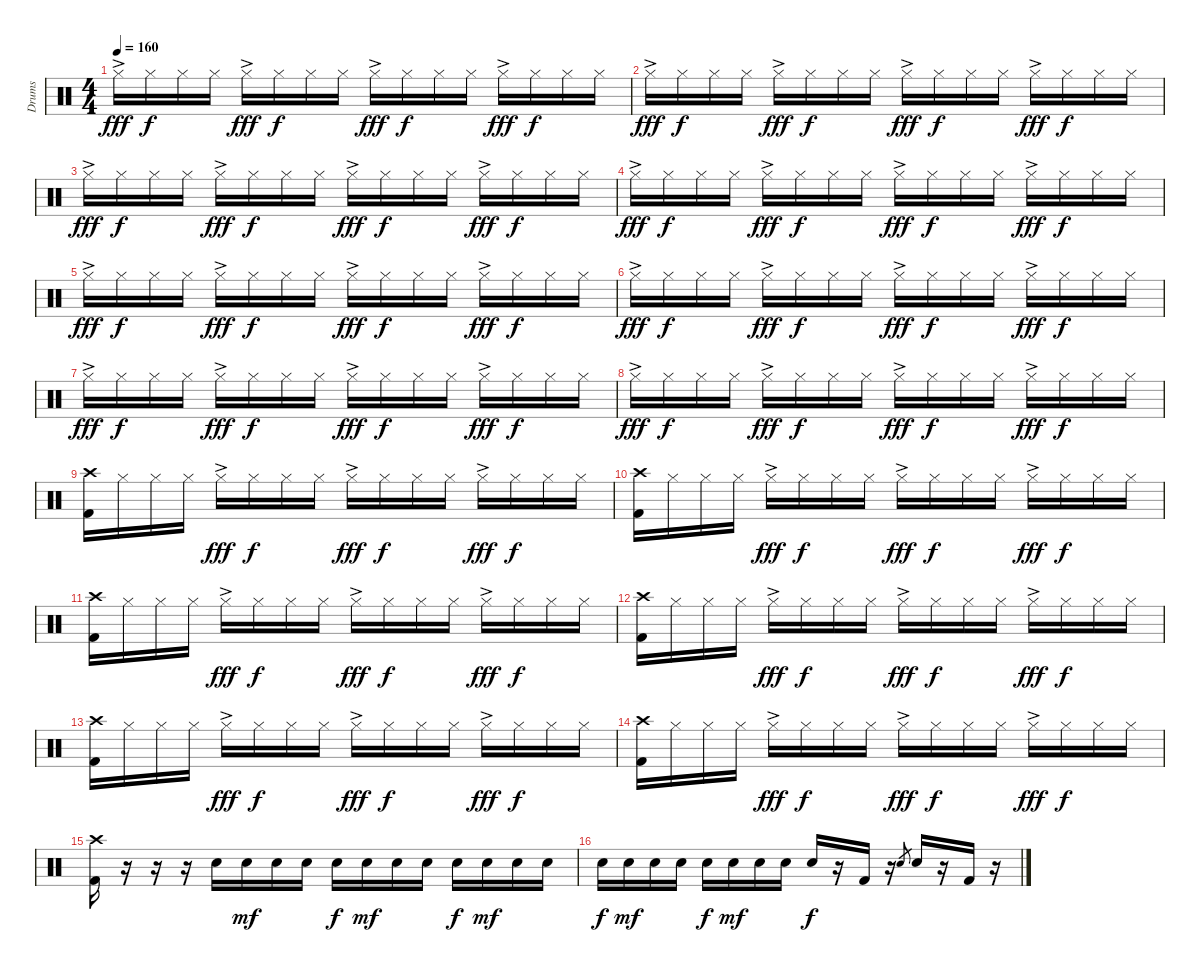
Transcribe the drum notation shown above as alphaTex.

\track ("Drums" "Drums") {instrument percussion}
\staff {score}
\articulation defaults
\ts (4 4)
\tempo 160
\clef neutral
\ks c "Hi-Hat (closed)"{ac}.16{dy fff} "Hi-Hat (closed)".16{dy f} "Hi-Hat (closed)".16 "Hi-Hat (closed)".16 "Hi-Hat (closed)"{ac}.16{dy fff} "Hi-Hat (closed)".16{dy f} "Hi-Hat (closed)".16 "Hi-Hat (closed)".16 "Hi-Hat (closed)"{ac}.16{dy fff} "Hi-Hat (closed)".16{dy f} "Hi-Hat (closed)".16 "Hi-Hat (closed)".16 "Hi-Hat (closed)"{ac}.16{dy fff} "Hi-Hat (closed)".16{dy f} "Hi-Hat (closed)".16 "Hi-Hat (closed)".16
|
"Hi-Hat (closed)"{ac}.16{dy fff} "Hi-Hat (closed)".16{dy f} "Hi-Hat (closed)".16 "Hi-Hat (closed)".16 "Hi-Hat (closed)"{ac}.16{dy fff} "Hi-Hat (closed)".16{dy f} "Hi-Hat (closed)".16 "Hi-Hat (closed)".16 "Hi-Hat (closed)"{ac}.16{dy fff} "Hi-Hat (closed)".16{dy f} "Hi-Hat (closed)".16 "Hi-Hat (closed)".16 "Hi-Hat (closed)"{ac}.16{dy fff} "Hi-Hat (closed)".16{dy f} "Hi-Hat (closed)".16 "Hi-Hat (closed)".16 |
"Hi-Hat (closed)"{ac}.16{dy fff} "Hi-Hat (closed)".16{dy f} "Hi-Hat (closed)".16 "Hi-Hat (closed)".16 "Hi-Hat (closed)"{ac}.16{dy fff} "Hi-Hat (closed)".16{dy f} "Hi-Hat (closed)".16 "Hi-Hat (closed)".16 "Hi-Hat (closed)"{ac}.16{dy fff} "Hi-Hat (closed)".16{dy f} "Hi-Hat (closed)".16 "Hi-Hat (closed)".16 "Hi-Hat (closed)"{ac}.16{dy fff} "Hi-Hat (closed)".16{dy f} "Hi-Hat (closed)".16 "Hi-Hat (closed)".16 |
"Hi-Hat (closed)"{ac}.16{dy fff} "Hi-Hat (closed)".16{dy f} "Hi-Hat (closed)".16 "Hi-Hat (closed)".16 "Hi-Hat (closed)"{ac}.16{dy fff} "Hi-Hat (closed)".16{dy f} "Hi-Hat (closed)".16 "Hi-Hat (closed)".16 "Hi-Hat (closed)"{ac}.16{dy fff} "Hi-Hat (closed)".16{dy f} "Hi-Hat (closed)".16 "Hi-Hat (closed)".16 "Hi-Hat (closed)"{ac}.16{dy fff} "Hi-Hat (closed)".16{dy f} "Hi-Hat (closed)".16 "Hi-Hat (closed)".16 |
"Hi-Hat (closed)"{ac}.16{dy fff} "Hi-Hat (closed)".16{dy f} "Hi-Hat (closed)".16 "Hi-Hat (closed)".16 "Hi-Hat (closed)"{ac}.16{dy fff} "Hi-Hat (closed)".16{dy f} "Hi-Hat (closed)".16 "Hi-Hat (closed)".16 "Hi-Hat (closed)"{ac}.16{dy fff} "Hi-Hat (closed)".16{dy f} "Hi-Hat (closed)".16 "Hi-Hat (closed)".16 "Hi-Hat (closed)"{ac}.16{dy fff} "Hi-Hat (closed)".16{dy f} "Hi-Hat (closed)".16 "Hi-Hat (closed)".16 |
"Hi-Hat (closed)"{ac}.16{dy fff} "Hi-Hat (closed)".16{dy f} "Hi-Hat (closed)".16 "Hi-Hat (closed)".16 "Hi-Hat (closed)"{ac}.16{dy fff} "Hi-Hat (closed)".16{dy f} "Hi-Hat (closed)".16 "Hi-Hat (closed)".16 "Hi-Hat (closed)"{ac}.16{dy fff} "Hi-Hat (closed)".16{dy f} "Hi-Hat (closed)".16 "Hi-Hat (closed)".16 "Hi-Hat (closed)"{ac}.16{dy fff} "Hi-Hat (closed)".16{dy f} "Hi-Hat (closed)".16 "Hi-Hat (closed)".16 |
"Hi-Hat (closed)"{ac}.16{dy fff} "Hi-Hat (closed)".16{dy f} "Hi-Hat (closed)".16 "Hi-Hat (closed)".16 "Hi-Hat (closed)"{ac}.16{dy fff} "Hi-Hat (closed)".16{dy f} "Hi-Hat (closed)".16 "Hi-Hat (closed)".16 "Hi-Hat (closed)"{ac}.16{dy fff} "Hi-Hat (closed)".16{dy f} "Hi-Hat (closed)".16 "Hi-Hat (closed)".16 "Hi-Hat (closed)"{ac}.16{dy fff} "Hi-Hat (closed)".16{dy f} "Hi-Hat (closed)".16 "Hi-Hat (closed)".16 |
"Hi-Hat (closed)"{ac}.16{dy fff} "Hi-Hat (closed)".16{dy f} "Hi-Hat (closed)".16 "Hi-Hat (closed)".16 "Hi-Hat (closed)"{ac}.16{dy fff} "Hi-Hat (closed)".16{dy f} "Hi-Hat (closed)".16 "Hi-Hat (closed)".16 "Hi-Hat (closed)"{ac}.16{dy fff} "Hi-Hat (closed)".16{dy f} "Hi-Hat (closed)".16 "Hi-Hat (closed)".16 "Hi-Hat (closed)"{ac}.16{dy fff} "Hi-Hat (closed)".16{dy f} "Hi-Hat (closed)".16 "Hi-Hat (closed)".16 |
("Crash high (hit)" "Kick (hit) 2").16 "Hi-Hat (closed)".16 "Hi-Hat (closed)".16 "Hi-Hat (closed)".16 "Hi-Hat (closed)"{ac}.16{dy fff} "Hi-Hat (closed)".16{dy f} "Hi-Hat (closed)".16 "Hi-Hat (closed)".16 "Hi-Hat (closed)"{ac}.16{dy fff} "Hi-Hat (closed)".16{dy f} "Hi-Hat (closed)".16 "Hi-Hat (closed)".16 "Hi-Hat (closed)"{ac}.16{dy fff} "Hi-Hat (closed)".16{dy f} "Hi-Hat (closed)".16 "Hi-Hat (closed)".16 |
("Crash high (hit)" "Kick (hit) 2").16 "Hi-Hat (closed)".16 "Hi-Hat (closed)".16 "Hi-Hat (closed)".16 "Hi-Hat (closed)"{ac}.16{dy fff} "Hi-Hat (closed)".16{dy f} "Hi-Hat (closed)".16 "Hi-Hat (closed)".16 "Hi-Hat (closed)"{ac}.16{dy fff} "Hi-Hat (closed)".16{dy f} "Hi-Hat (closed)".16 "Hi-Hat (closed)".16 "Hi-Hat (closed)"{ac}.16{dy fff} "Hi-Hat (closed)".16{dy f} "Hi-Hat (closed)".16 "Hi-Hat (closed)".16 |
("Crash high (hit)" "Kick (hit) 2").16 "Hi-Hat (closed)".16 "Hi-Hat (closed)".16 "Hi-Hat (closed)".16 "Hi-Hat (closed)"{ac}.16{dy fff} "Hi-Hat (closed)".16{dy f} "Hi-Hat (closed)".16 "Hi-Hat (closed)".16 "Hi-Hat (closed)"{ac}.16{dy fff} "Hi-Hat (closed)".16{dy f} "Hi-Hat (closed)".16 "Hi-Hat (closed)".16 "Hi-Hat (closed)"{ac}.16{dy fff} "Hi-Hat (closed)".16{dy f} "Hi-Hat (closed)".16 "Hi-Hat (closed)".16 |
("Crash high (hit)" "Kick (hit) 2").16 "Hi-Hat (closed)".16 "Hi-Hat (closed)".16 "Hi-Hat (closed)".16 "Hi-Hat (closed)"{ac}.16{dy fff} "Hi-Hat (closed)".16{dy f} "Hi-Hat (closed)".16 "Hi-Hat (closed)".16 "Hi-Hat (closed)"{ac}.16{dy fff} "Hi-Hat (closed)".16{dy f} "Hi-Hat (closed)".16 "Hi-Hat (closed)".16 "Hi-Hat (closed)"{ac}.16{dy fff} "Hi-Hat (closed)".16{dy f} "Hi-Hat (closed)".16 "Hi-Hat (closed)".16 |
("Crash high (hit)" "Kick (hit) 2").16 "Hi-Hat (closed)".16 "Hi-Hat (closed)".16 "Hi-Hat (closed)".16 "Hi-Hat (closed)"{ac}.16{dy fff} "Hi-Hat (closed)".16{dy f} "Hi-Hat (closed)".16 "Hi-Hat (closed)".16 "Hi-Hat (closed)"{ac}.16{dy fff} "Hi-Hat (closed)".16{dy f} "Hi-Hat (closed)".16 "Hi-Hat (closed)".16 "Hi-Hat (closed)"{ac}.16{dy fff} "Hi-Hat (closed)".16{dy f} "Hi-Hat (closed)".16 "Hi-Hat (closed)".16 |
("Crash high (hit)" "Kick (hit) 2").16 "Hi-Hat (closed)".16 "Hi-Hat (closed)".16 "Hi-Hat (closed)".16 "Hi-Hat (closed)"{ac}.16{dy fff} "Hi-Hat (closed)".16{dy f} "Hi-Hat (closed)".16 "Hi-Hat (closed)".16 "Hi-Hat (closed)"{ac}.16{dy fff} "Hi-Hat (closed)".16{dy f} "Hi-Hat (closed)".16 "Hi-Hat (closed)".16 "Hi-Hat (closed)"{ac}.16{dy fff} "Hi-Hat (closed)".16{dy f} "Hi-Hat (closed)".16 "Hi-Hat (closed)".16 |
("Kick (hit) 2" "Crash high (hit)").16 r.16 r.16 r.16 "Electric Snare (hit)".16 "Electric Snare (hit)".16{dy mf} "Electric Snare (hit)".16 "Electric Snare (hit)".16 "Electric Snare (hit)".16{dy f} "Electric Snare (hit)".16{dy mf} "Electric Snare (hit)".16 "Electric Snare (hit)".16 "Electric Snare (hit)".16{dy f} "Electric Snare (hit)".16{dy mf} "Electric Snare (hit)".16 "Electric Snare (hit)".16 |
"Electric Snare (hit)".16{dy f} "Electric Snare (hit)".16{dy mf} "Electric Snare (hit)".16 "Electric Snare (hit)".16 "Electric Snare (hit)".16{dy f} "Electric Snare (hit)".16{dy mf} "Electric Snare (hit)".16 "Electric Snare (hit)".16 "Electric Snare (hit)".16{dy f} r.16 "Kick (hit) 2".16 r.16 "Electric Snare (hit)".8{gr} "Electric Snare (hit)".16 r.16 "Kick (hit) 2".16 r.16
